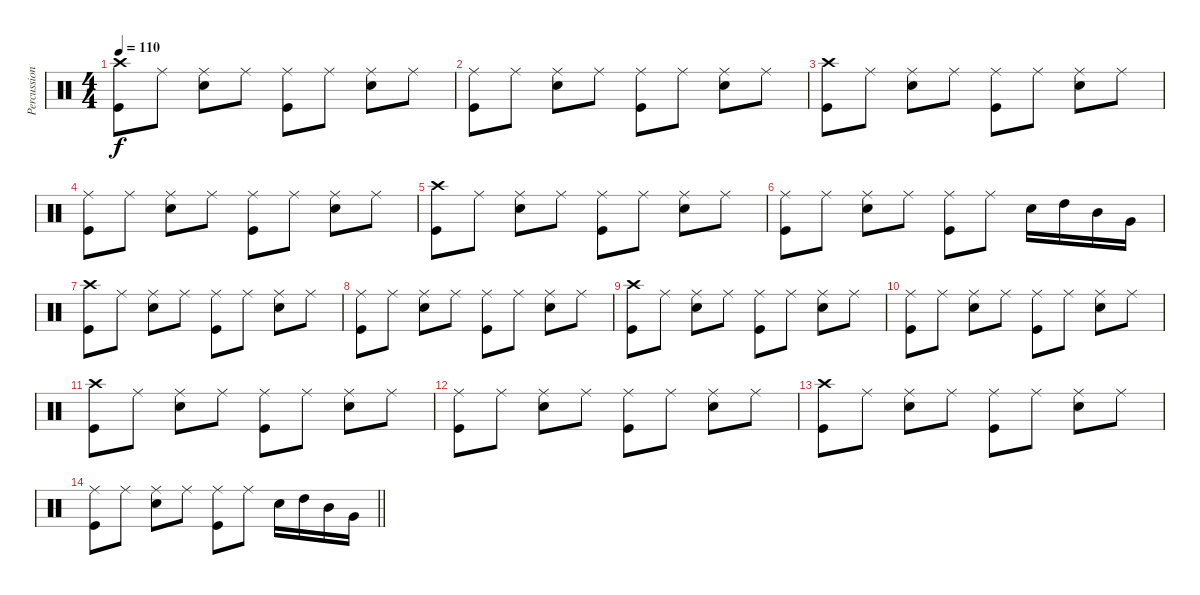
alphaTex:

\track ("Percussion" "Percussion") {instrument percussion}
\staff {score}
\articulation defaults
\ts (4 4)
\tempo 110
\clef neutral
\ks c
("Crash high (hit)" "Kick (hit)").8{dy f} "Ride (middle)".8 ("Ride (middle)" "Snare (hit) 2").8 "Ride (middle)".8 ("Ride (middle)" "Kick (hit)").8 "Ride (middle)".8 ("Ride (middle)" "Snare (hit) 2").8 "Ride (middle)".8 |
("Ride (middle)" "Kick (hit)").8 "Ride (middle)".8 ("Ride (middle)" "Snare (hit) 2").8 "Ride (middle)".8 ("Ride (middle)" "Kick (hit)").8 "Ride (middle)".8 ("Ride (middle)" "Snare (hit) 2").8 "Ride (middle)".8 |
("Crash high (hit)" "Kick (hit)").8 "Ride (middle)".8 ("Ride (middle)" "Snare (hit) 2").8 "Ride (middle)".8 ("Ride (middle)" "Kick (hit)").8 "Ride (middle)".8 ("Ride (middle)" "Snare (hit) 2").8 "Ride (middle)".8 |
("Ride (middle)" "Kick (hit)").8 "Ride (middle)".8 ("Ride (middle)" "Snare (hit) 2").8 "Ride (middle)".8 ("Ride (middle)" "Kick (hit)").8 "Ride (middle)".8 ("Ride (middle)" "Snare (hit) 2").8 "Ride (middle)".8 |
("Crash high (hit)" "Kick (hit)").8 "Ride (middle)".8 ("Ride (middle)" "Snare (hit) 2").8 "Ride (middle)".8 ("Ride (middle)" "Kick (hit)").8 "Ride (middle)".8 ("Ride (middle)" "Snare (hit) 2").8 "Ride (middle)".8 |
("Ride (middle)" "Kick (hit)").8 "Ride (middle)".8 ("Ride (middle)" "Snare (hit) 2").8 "Ride (middle)".8 ("Ride (middle)" "Kick (hit)").8 "Ride (middle)".8 "Snare (hit) 2".16 "High Tom (hit)".16 "Mid Tom (hit)".16 "Very Low Tom (hit)".16 |
("Crash high (hit)" "Kick (hit)").8 "Ride (middle)".8 ("Ride (middle)" "Snare (hit) 2").8 "Ride (middle)".8 ("Ride (middle)" "Kick (hit)").8 "Ride (middle)".8 ("Ride (middle)" "Snare (hit) 2").8 "Ride (middle)".8 |
("Ride (middle)" "Kick (hit)").8 "Ride (middle)".8 ("Ride (middle)" "Snare (hit) 2").8 "Ride (middle)".8 ("Ride (middle)" "Kick (hit)").8 "Ride (middle)".8 ("Ride (middle)" "Snare (hit) 2").8 "Ride (middle)".8 |
("Crash high (hit)" "Kick (hit)").8 "Ride (middle)".8 ("Ride (middle)" "Snare (hit) 2").8 "Ride (middle)".8 ("Ride (middle)" "Kick (hit)").8 "Ride (middle)".8 ("Ride (middle)" "Snare (hit) 2").8 "Ride (middle)".8 |
("Ride (middle)" "Kick (hit)").8 "Ride (middle)".8 ("Ride (middle)" "Snare (hit) 2").8 "Ride (middle)".8 ("Ride (middle)" "Kick (hit)").8 "Ride (middle)".8 ("Ride (middle)" "Snare (hit) 2").8 "Ride (middle)".8 |
("Crash high (hit)" "Kick (hit)").8 "Ride (middle)".8 ("Ride (middle)" "Snare (hit) 2").8 "Ride (middle)".8 ("Ride (middle)" "Kick (hit)").8 "Ride (middle)".8 ("Ride (middle)" "Snare (hit) 2").8 "Ride (middle)".8 |
("Ride (middle)" "Kick (hit)").8 "Ride (middle)".8 ("Ride (middle)" "Snare (hit) 2").8 "Ride (middle)".8 ("Ride (middle)" "Kick (hit)").8 "Ride (middle)".8 ("Ride (middle)" "Snare (hit) 2").8 "Ride (middle)".8 |
("Crash high (hit)" "Kick (hit)").8 "Ride (middle)".8 ("Ride (middle)" "Snare (hit) 2").8 "Ride (middle)".8 ("Ride (middle)" "Kick (hit)").8 "Ride (middle)".8 ("Ride (middle)" "Snare (hit) 2").8 "Ride (middle)".8 |
\barLineRight lightlight
("Ride (middle)" "Kick (hit)").8 "Ride (middle)".8 ("Ride (middle)" "Snare (hit) 2").8 "Ride (middle)".8 ("Ride (middle)" "Kick (hit)").8 "Ride (middle)".8 "Snare (hit) 2".16 "High Tom (hit)".16 "Mid Tom (hit)".16 "Very Low Tom (hit)".16
